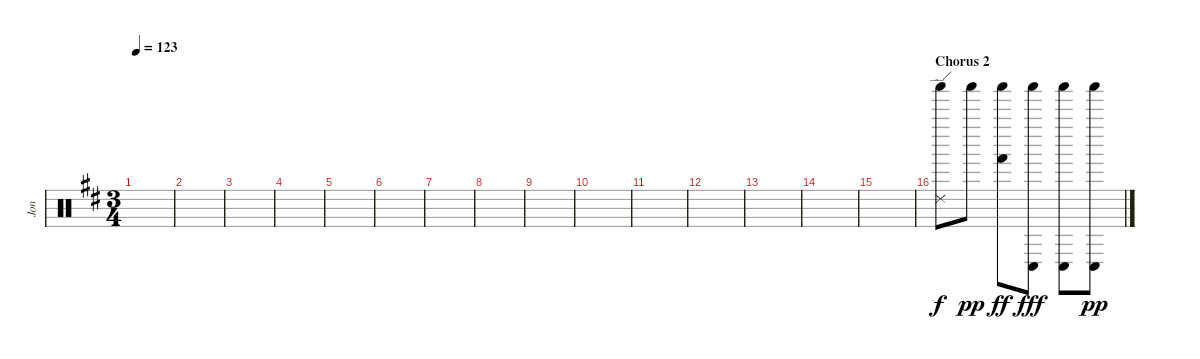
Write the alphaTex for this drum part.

\track ("Jon" "Jon") {instrument percussion}
\staff {score}
\articulation defaults
\ts (3 4)
\tempo 123
\clef neutral
\ks d
|
|
|
|
|
|
|
\section ("" "")
|
|
|
|
|
|
|
|
\section ("" "Chorus 2")
("Shaker (hit)" "Ride (edge) 2").8{dy f} "Shaker (hit)".8{dy pp} ("Shaker (hit)" "Hand (hit)").8{dy ff} ("Shaker (hit)" "Conga low (hit)").8{dy fff} ("Shaker (hit)" "Conga low (hit)").8 ("Shaker (hit)" "Conga low (hit)").8{dy pp}
